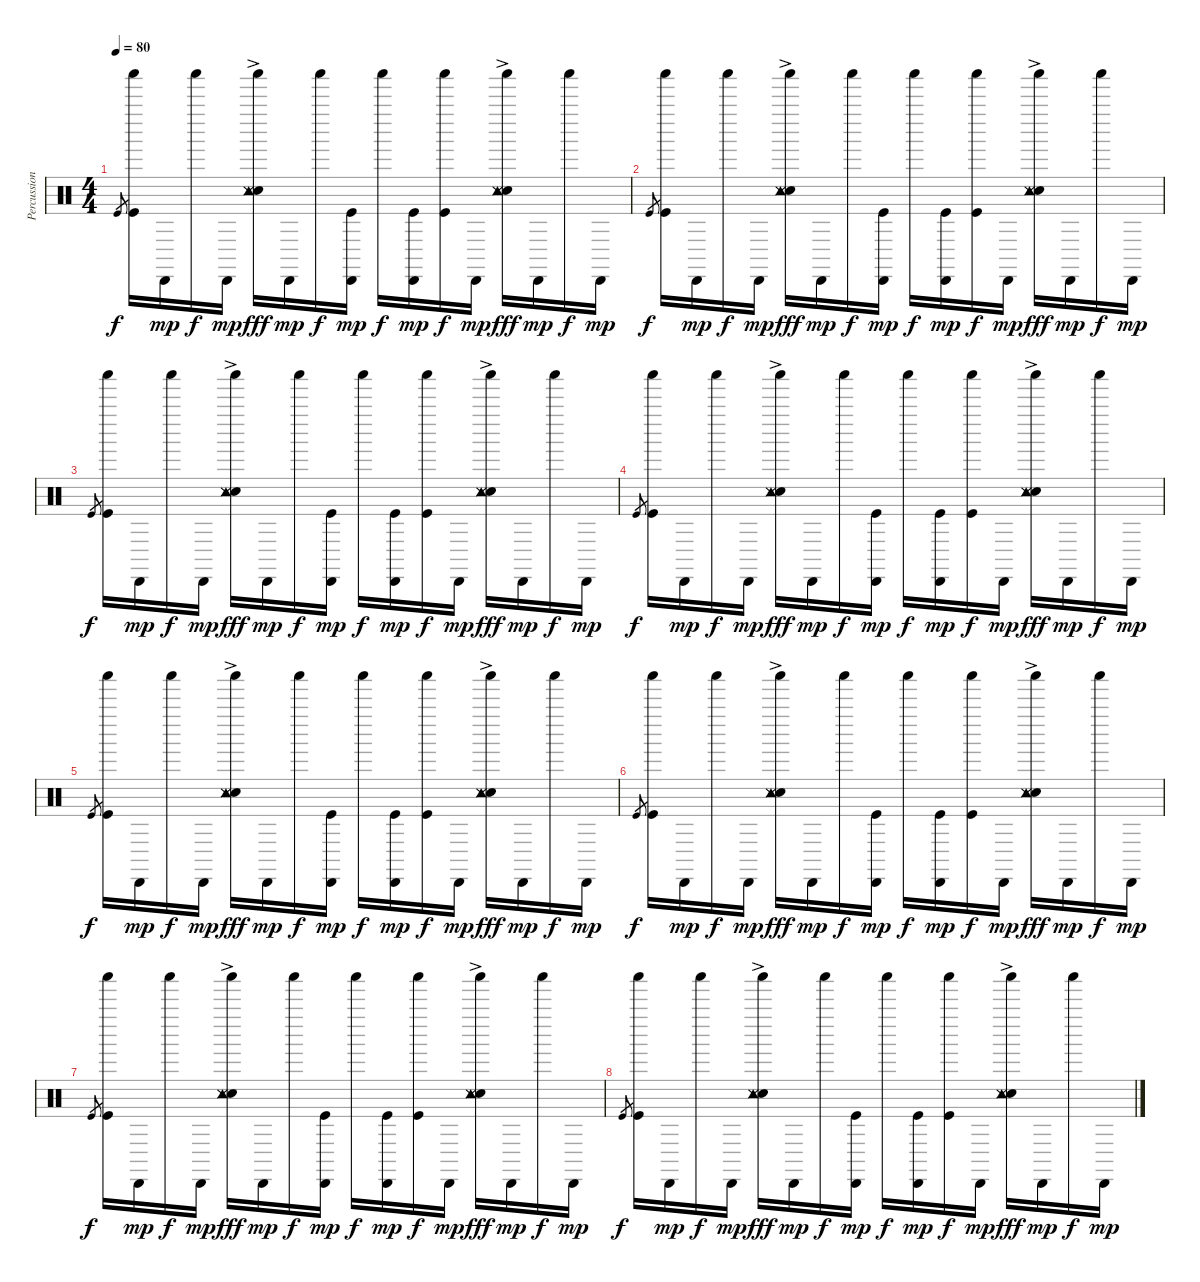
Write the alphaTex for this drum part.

\track ("Percussions" "Percussion") {instrument percussion}
\staff {score}
\articulation defaults
\ts (4 4)
\tempo 80
\clef neutral
\ks c "Kick (hit)".8{gr dy f}
("Shaker (hit)" "Kick (hit)").16 "Cabasa (hit)".16{dy mp} "Shaker (hit)".16{dy f} "Cabasa (hit)".16{dy mp} ("Shaker (hit)" "Electric Snare (hit)" "Tambourine (hit)"{ac} "Snare (side stick) 3" "Metronome (hit)").16{dy fff} "Cabasa (hit)".16{dy mp} "Shaker (hit)".16{dy f} ("Cabasa (hit)" "Kick (hit)").16{dy mp} "Shaker (hit)".16{dy f} ("Cabasa (hit)" "Kick (hit)").16{dy mp} ("Shaker (hit)" "Kick (hit)").16{dy f} "Cabasa (hit)".16{dy mp} ("Shaker (hit)" "Electric Snare (hit)" "Tambourine (hit)"{ac} "Snare (side stick) 3" "Metronome (hit)").16{dy fff} "Cabasa (hit)".16{dy mp} "Shaker (hit)".16{dy f} "Cabasa (hit)".16{dy mp} |
"Kick (hit)".8{gr dy f} ("Shaker (hit)" "Kick (hit)").16 "Cabasa (hit)".16{dy mp} "Shaker (hit)".16{dy f} "Cabasa (hit)".16{dy mp} ("Shaker (hit)" "Electric Snare (hit)" "Tambourine (hit)"{ac} "Snare (side stick) 3" "Metronome (hit)").16{dy fff} "Cabasa (hit)".16{dy mp} "Shaker (hit)".16{dy f} ("Cabasa (hit)" "Kick (hit)").16{dy mp} "Shaker (hit)".16{dy f} ("Cabasa (hit)" "Kick (hit)").16{dy mp} ("Shaker (hit)" "Kick (hit)").16{dy f} "Cabasa (hit)".16{dy mp} ("Shaker (hit)" "Electric Snare (hit)" "Tambourine (hit)"{ac} "Snare (side stick) 3" "Metronome (hit)").16{dy fff} "Cabasa (hit)".16{dy mp} "Shaker (hit)".16{dy f} "Cabasa (hit)".16{dy mp} |
"Kick (hit)".8{gr dy f} ("Shaker (hit)" "Kick (hit)").16 "Cabasa (hit)".16{dy mp} "Shaker (hit)".16{dy f} "Cabasa (hit)".16{dy mp} ("Shaker (hit)" "Electric Snare (hit)" "Tambourine (hit)"{ac} "Snare (side stick) 3" "Metronome (hit)").16{dy fff} "Cabasa (hit)".16{dy mp} "Shaker (hit)".16{dy f} ("Cabasa (hit)" "Kick (hit)").16{dy mp} "Shaker (hit)".16{dy f} ("Cabasa (hit)" "Kick (hit)").16{dy mp} ("Shaker (hit)" "Kick (hit)").16{dy f} "Cabasa (hit)".16{dy mp} ("Shaker (hit)" "Electric Snare (hit)" "Tambourine (hit)"{ac} "Snare (side stick) 3" "Metronome (hit)").16{dy fff} "Cabasa (hit)".16{dy mp} "Shaker (hit)".16{dy f} "Cabasa (hit)".16{dy mp} |
"Kick (hit)".8{gr dy f} ("Shaker (hit)" "Kick (hit)").16 "Cabasa (hit)".16{dy mp} "Shaker (hit)".16{dy f} "Cabasa (hit)".16{dy mp} ("Shaker (hit)" "Electric Snare (hit)" "Tambourine (hit)"{ac} "Snare (side stick) 3" "Metronome (hit)").16{dy fff} "Cabasa (hit)".16{dy mp} "Shaker (hit)".16{dy f} ("Cabasa (hit)" "Kick (hit)").16{dy mp} "Shaker (hit)".16{dy f} ("Cabasa (hit)" "Kick (hit)").16{dy mp} ("Shaker (hit)" "Kick (hit)").16{dy f} "Cabasa (hit)".16{dy mp} ("Shaker (hit)" "Electric Snare (hit)" "Tambourine (hit)"{ac} "Snare (side stick) 3" "Metronome (hit)").16{dy fff} "Cabasa (hit)".16{dy mp} "Shaker (hit)".16{dy f} "Cabasa (hit)".16{dy mp} |
"Kick (hit)".8{gr dy f} ("Shaker (hit)" "Kick (hit)").16 "Cabasa (hit)".16{dy mp} "Shaker (hit)".16{dy f} "Cabasa (hit)".16{dy mp} ("Shaker (hit)" "Electric Snare (hit)" "Tambourine (hit)"{ac} "Snare (side stick) 3" "Metronome (hit)").16{dy fff} "Cabasa (hit)".16{dy mp} "Shaker (hit)".16{dy f} ("Cabasa (hit)" "Kick (hit)").16{dy mp} "Shaker (hit)".16{dy f} ("Cabasa (hit)" "Kick (hit)").16{dy mp} ("Shaker (hit)" "Kick (hit)").16{dy f} "Cabasa (hit)".16{dy mp} ("Shaker (hit)" "Electric Snare (hit)" "Tambourine (hit)"{ac} "Snare (side stick) 3" "Metronome (hit)").16{dy fff} "Cabasa (hit)".16{dy mp} "Shaker (hit)".16{dy f} "Cabasa (hit)".16{dy mp} |
"Kick (hit)".8{gr dy f} ("Shaker (hit)" "Kick (hit)").16 "Cabasa (hit)".16{dy mp} "Shaker (hit)".16{dy f} "Cabasa (hit)".16{dy mp} ("Shaker (hit)" "Electric Snare (hit)" "Tambourine (hit)"{ac} "Snare (side stick) 3" "Metronome (hit)").16{dy fff} "Cabasa (hit)".16{dy mp} "Shaker (hit)".16{dy f} ("Cabasa (hit)" "Kick (hit)").16{dy mp} "Shaker (hit)".16{dy f} ("Cabasa (hit)" "Kick (hit)").16{dy mp} ("Shaker (hit)" "Kick (hit)").16{dy f} "Cabasa (hit)".16{dy mp} ("Shaker (hit)" "Electric Snare (hit)" "Tambourine (hit)"{ac} "Snare (side stick) 3" "Metronome (hit)").16{dy fff} "Cabasa (hit)".16{dy mp} "Shaker (hit)".16{dy f} "Cabasa (hit)".16{dy mp} |
"Kick (hit)".8{gr dy f} ("Shaker (hit)" "Kick (hit)").16 "Cabasa (hit)".16{dy mp} "Shaker (hit)".16{dy f} "Cabasa (hit)".16{dy mp} ("Shaker (hit)" "Electric Snare (hit)" "Tambourine (hit)"{ac} "Snare (side stick) 3" "Metronome (hit)").16{dy fff} "Cabasa (hit)".16{dy mp} "Shaker (hit)".16{dy f} ("Cabasa (hit)" "Kick (hit)").16{dy mp} "Shaker (hit)".16{dy f} ("Cabasa (hit)" "Kick (hit)").16{dy mp} ("Shaker (hit)" "Kick (hit)").16{dy f} "Cabasa (hit)".16{dy mp} ("Shaker (hit)" "Electric Snare (hit)" "Tambourine (hit)"{ac} "Snare (side stick) 3" "Metronome (hit)").16{dy fff} "Cabasa (hit)".16{dy mp} "Shaker (hit)".16{dy f} "Cabasa (hit)".16{dy mp} |
"Kick (hit)".8{gr dy f} ("Shaker (hit)" "Kick (hit)").16 "Cabasa (hit)".16{dy mp} "Shaker (hit)".16{dy f} "Cabasa (hit)".16{dy mp} ("Shaker (hit)" "Electric Snare (hit)" "Tambourine (hit)"{ac} "Snare (side stick) 3" "Metronome (hit)").16{dy fff} "Cabasa (hit)".16{dy mp} "Shaker (hit)".16{dy f} ("Cabasa (hit)" "Kick (hit)").16{dy mp} "Shaker (hit)".16{dy f} ("Cabasa (hit)" "Kick (hit)").16{dy mp} ("Shaker (hit)" "Kick (hit)").16{dy f} "Cabasa (hit)".16{dy mp} ("Shaker (hit)" "Electric Snare (hit)" "Tambourine (hit)"{ac} "Snare (side stick) 3" "Metronome (hit)").16{dy fff} "Cabasa (hit)".16{dy mp} "Shaker (hit)".16{dy f} "Cabasa (hit)".16{dy mp}
